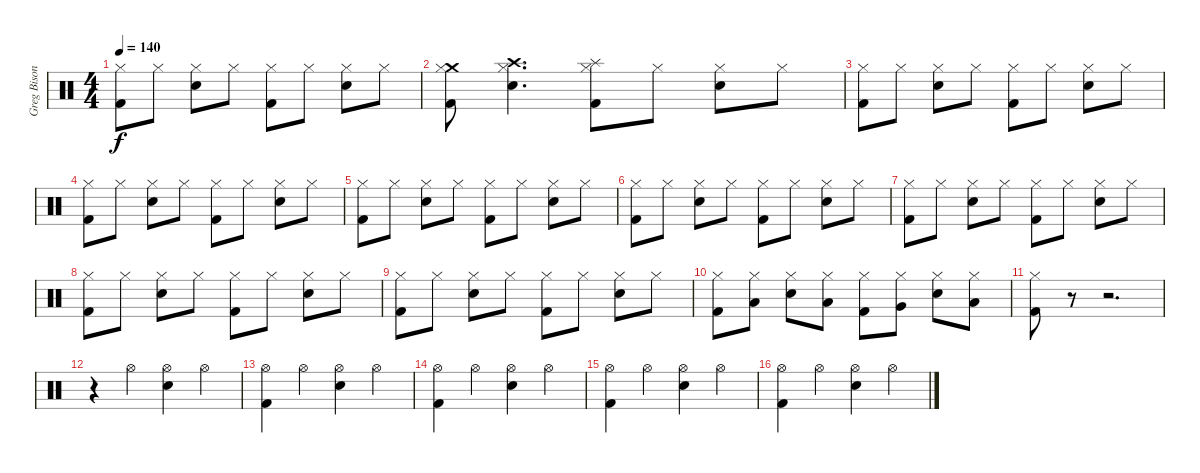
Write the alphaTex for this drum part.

\track ("Greg Bisonette" "Greg Bison") {instrument percussion}
\staff {score}
\articulation defaults
\ts (4 4)
\tempo 140
\clef neutral
\ks c
("Hi-Hat (closed)" "Kick (hit) 2").8{dy f} "Hi-Hat (closed)".8 ("Hi-Hat (closed)" "Electric Snare (hit)").8 "Hi-Hat (closed)".8 ("Hi-Hat (closed)" "Kick (hit) 2").8 "Hi-Hat (closed)".8 ("Hi-Hat (closed)" "Electric Snare (hit)").8 "Hi-Hat (closed)".8 |
("Crash medium (hit)" "Hi-Hat (closed)" "Kick (hit) 2").8 ("Crash high (hit)" "Hi-Hat (closed)" "Electric Snare (hit)").4{d} ("Splash (hit)" "Hi-Hat (closed)" "Kick (hit) 2").8 "Hi-Hat (closed)".8 ("Hi-Hat (closed)" "Electric Snare (hit)").8 "Hi-Hat (closed)".8 |
("Hi-Hat (closed)" "Kick (hit) 2").8 "Hi-Hat (closed)".8 ("Hi-Hat (closed)" "Electric Snare (hit)").8 "Hi-Hat (closed)".8 ("Hi-Hat (closed)" "Kick (hit) 2").8 "Hi-Hat (closed)".8 ("Hi-Hat (closed)" "Electric Snare (hit)").8 "Hi-Hat (closed)".8 |
("Hi-Hat (closed)" "Kick (hit) 2").8 "Hi-Hat (closed)".8 ("Hi-Hat (closed)" "Electric Snare (hit)").8 "Hi-Hat (closed)".8 ("Hi-Hat (closed)" "Kick (hit) 2").8 "Hi-Hat (closed)".8 ("Hi-Hat (closed)" "Electric Snare (hit)").8 "Hi-Hat (closed)".8 |
("Hi-Hat (closed)" "Kick (hit) 2").8 "Hi-Hat (closed)".8 ("Hi-Hat (closed)" "Electric Snare (hit)").8 "Hi-Hat (closed)".8 ("Hi-Hat (closed)" "Kick (hit) 2").8 "Hi-Hat (closed)".8 ("Hi-Hat (closed)" "Electric Snare (hit)").8 "Hi-Hat (closed)".8 |
("Hi-Hat (closed)" "Kick (hit) 2").8 "Hi-Hat (closed)".8 ("Hi-Hat (closed)" "Electric Snare (hit)").8 "Hi-Hat (closed)".8 ("Hi-Hat (closed)" "Kick (hit) 2").8 "Hi-Hat (closed)".8 ("Hi-Hat (closed)" "Electric Snare (hit)").8 "Hi-Hat (closed)".8 |
("Hi-Hat (closed)" "Kick (hit) 2").8 "Hi-Hat (closed)".8 ("Hi-Hat (closed)" "Electric Snare (hit)").8 "Hi-Hat (closed)".8 ("Hi-Hat (closed)" "Kick (hit) 2").8 "Hi-Hat (closed)".8 ("Hi-Hat (closed)" "Electric Snare (hit)").8 "Hi-Hat (closed)".8 |
("Hi-Hat (closed)" "Kick (hit) 2").8 "Hi-Hat (closed)".8 ("Hi-Hat (closed)" "Electric Snare (hit)").8 "Hi-Hat (closed)".8 ("Hi-Hat (closed)" "Kick (hit) 2").8 "Hi-Hat (closed)".8 ("Hi-Hat (closed)" "Electric Snare (hit)").8 "Hi-Hat (closed)".8 |
("Hi-Hat (closed)" "Kick (hit) 2").8 "Hi-Hat (closed)".8 ("Hi-Hat (closed)" "Electric Snare (hit)").8 "Hi-Hat (closed)".8 ("Hi-Hat (closed)" "Kick (hit) 2").8 "Hi-Hat (closed)".8 ("Hi-Hat (closed)" "Electric Snare (hit)").8 "Hi-Hat (closed)".8 |
("Hi-Hat (closed)" "Kick (hit) 2").8 ("Hi-Hat (closed)" "Low Floor Tom (hit)").8 ("Hi-Hat (closed)" "Electric Snare (hit)").8 ("Hi-Hat (closed)" "Low Tom (hit)").8 ("Hi-Hat (closed)" "Kick (hit) 2").8 ("Hi-Hat (closed)" "Very Low Tom (hit)").8 ("Hi-Hat (closed)" "Electric Snare (hit)").8 ("Hi-Hat (closed)" "Low Floor Tom (hit)").8 |
("Hi-Hat (closed)" "Kick (hit) 2").8 r.8 r.2{d} |
r.4 "Hi-Hat (open)"{x}.4 ("Hi-Hat (open)"{x} "Electric Snare (hit)"{x}).4 "Hi-Hat (open)"{x}.4 |
("Hi-Hat (open)" "Kick (hit) 2").4 "Hi-Hat (open)".4 ("Hi-Hat (open)" "Electric Snare (hit)").4 "Hi-Hat (open)".4 |
("Hi-Hat (open)" "Kick (hit) 2").4 "Hi-Hat (open)".4 ("Hi-Hat (open)" "Electric Snare (hit)").4 "Hi-Hat (open)".4 |
("Hi-Hat (open)" "Kick (hit) 2").4 "Hi-Hat (open)".4 ("Hi-Hat (open)" "Electric Snare (hit)").4 "Hi-Hat (open)".4 |
("Hi-Hat (open)" "Kick (hit) 2").4 "Hi-Hat (open)".4 ("Hi-Hat (open)" "Electric Snare (hit)").4 "Hi-Hat (open)".4
